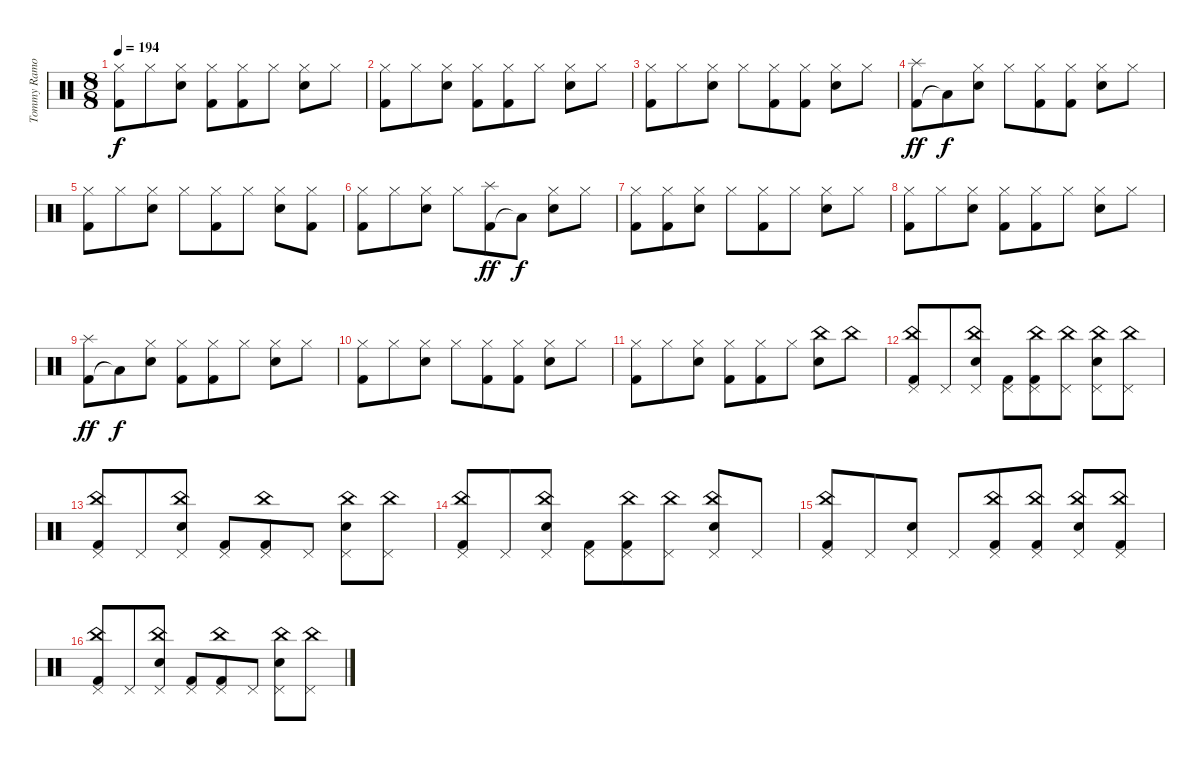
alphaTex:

\track ("Tommy Ramone - Drums" "Tommy Ramo") {instrument percussion}
\staff {score}
\articulation defaults
\ts (8 8)
\tempo 194
\clef neutral
\ks c
("Kick (hit) 2" "Hi-Hat (closed)").8{dy f} "Hi-Hat (closed)".8 ("Electric Snare (hit)" "Hi-Hat (closed)").8 ("Kick (hit) 2" "Hi-Hat (closed)").8 ("Kick (hit) 2" "Hi-Hat (closed)").8 "Hi-Hat (closed)".8 ("Electric Snare (hit)" "Hi-Hat (closed)").8 "Hi-Hat (closed)".8 |
("Kick (hit) 2" "Hi-Hat (closed)").8 "Hi-Hat (closed)".8 ("Electric Snare (hit)" "Hi-Hat (closed)").8 ("Kick (hit) 2" "Hi-Hat (closed)").8 ("Kick (hit) 2" "Hi-Hat (closed)").8 "Hi-Hat (closed)".8 ("Electric Snare (hit)" "Hi-Hat (closed)").8 "Hi-Hat (closed)".8 |
("Kick (hit) 2" "Hi-Hat (closed)").8 "Hi-Hat (closed)".8 ("Electric Snare (hit)" "Hi-Hat (closed)").8 "Hi-Hat (closed)".8 ("Kick (hit) 2" "Hi-Hat (closed)").8 ("Kick (hit) 2" "Hi-Hat (closed)").8 ("Electric Snare (hit)" "Hi-Hat (closed)").8 "Hi-Hat (closed)".8 |
("Kick (hit) 2" "Splash (hit)").8{dy ff} "Low Floor Tom (hit)"{t}.8{dy f} ("Electric Snare (hit)" "Hi-Hat (closed)").8 "Hi-Hat (closed)".8 ("Kick (hit) 2" "Hi-Hat (closed)").8 ("Kick (hit) 2" "Hi-Hat (closed)").8 ("Electric Snare (hit)" "Hi-Hat (closed)").8 "Hi-Hat (closed)".8 |
("Kick (hit) 2" "Hi-Hat (closed)").8 "Hi-Hat (closed)".8 ("Electric Snare (hit)" "Hi-Hat (closed)").8 "Hi-Hat (closed)".8 ("Kick (hit) 2" "Hi-Hat (closed)").8 "Hi-Hat (closed)".8 ("Electric Snare (hit)" "Hi-Hat (closed)").8 ("Kick (hit) 2" "Hi-Hat (closed)").8 |
("Kick (hit) 2" "Hi-Hat (closed)").8 "Hi-Hat (closed)".8 ("Electric Snare (hit)" "Hi-Hat (closed)").8 "Hi-Hat (closed)".8 ("Kick (hit) 2" "Splash (hit)").8{dy ff} "Low Floor Tom (hit)"{t}.8{dy f} ("Electric Snare (hit)" "Hi-Hat (closed)").8 "Hi-Hat (closed)".8 |
("Kick (hit) 2" "Hi-Hat (closed)").8 ("Kick (hit) 2" "Hi-Hat (closed)").8 ("Electric Snare (hit)" "Hi-Hat (closed)").8 "Hi-Hat (closed)".8 ("Kick (hit) 2" "Hi-Hat (closed)").8 "Hi-Hat (closed)".8 ("Electric Snare (hit)" "Hi-Hat (closed)").8 "Hi-Hat (closed)".8 |
("Kick (hit) 2" "Hi-Hat (closed)").8 "Hi-Hat (closed)".8 ("Electric Snare (hit)" "Hi-Hat (closed)").8 ("Kick (hit) 2" "Hi-Hat (closed)").8 ("Kick (hit) 2" "Hi-Hat (closed)").8 "Hi-Hat (closed)".8 ("Electric Snare (hit)" "Hi-Hat (closed)").8 "Hi-Hat (closed)".8 |
("Kick (hit) 2" "Splash (hit)").8{dy ff} "Low Floor Tom (hit)"{t}.8{dy f} ("Electric Snare (hit)" "Hi-Hat (closed)").8 ("Kick (hit) 2" "Hi-Hat (closed)").8 ("Kick (hit) 2" "Hi-Hat (closed)").8 "Hi-Hat (closed)".8 ("Electric Snare (hit)" "Hi-Hat (closed)").8 "Hi-Hat (closed)".8 |
("Kick (hit) 2" "Hi-Hat (closed)").8 "Hi-Hat (closed)".8 ("Electric Snare (hit)" "Hi-Hat (closed)").8 "Hi-Hat (closed)".8 ("Kick (hit) 2" "Hi-Hat (closed)").8 ("Kick (hit) 2" "Hi-Hat (closed)").8 ("Electric Snare (hit)" "Hi-Hat (closed)").8 "Hi-Hat (closed)".8 |
("Kick (hit) 2" "Hi-Hat (closed)").8 "Hi-Hat (closed)".8 ("Electric Snare (hit)" "Hi-Hat (closed)").8 ("Kick (hit) 2" "Hi-Hat (closed)").8 ("Kick (hit) 2" "Hi-Hat (closed)").8 "Hi-Hat (closed)".8 ("Electric Snare (hit)" "China (hit)").8 "China (hit)".8{bd 240} |
("Kick (hit) 2" "China (hit)" "Pedal Hi-Hat (hit)").8 "Pedal Hi-Hat (hit)".8 ("Electric Snare (hit)" "China (hit)" "Pedal Hi-Hat (hit)").8 ("Kick (hit) 2" "Pedal Hi-Hat (hit)").8 ("Kick (hit) 2" "China (hit)" "Pedal Hi-Hat (hit)").8 ("China (hit)" "Pedal Hi-Hat (hit)").8 ("Electric Snare (hit)" "China (hit)" "Pedal Hi-Hat (hit)").8 ("China (hit)" "Pedal Hi-Hat (hit)").8{bd 240} |
("Kick (hit) 2" "China (hit)" "Pedal Hi-Hat (hit)").8 "Pedal Hi-Hat (hit)".8 ("Electric Snare (hit)" "China (hit)" "Pedal Hi-Hat (hit)").8 ("Kick (hit) 2" "Pedal Hi-Hat (hit)").8 ("Kick (hit) 2" "China (hit)" "Pedal Hi-Hat (hit)").8 "Pedal Hi-Hat (hit)".8 ("Electric Snare (hit)" "China (hit)" "Pedal Hi-Hat (hit)").8 ("China (hit)" "Pedal Hi-Hat (hit)").8{bd 240} |
("Kick (hit) 2" "China (hit)" "Pedal Hi-Hat (hit)").8 "Pedal Hi-Hat (hit)".8 ("Electric Snare (hit)" "China (hit)" "Pedal Hi-Hat (hit)").8 ("Kick (hit) 2" "Pedal Hi-Hat (hit)").8 ("Kick (hit) 2" "China (hit)" "Pedal Hi-Hat (hit)").8 ("China (hit)" "Pedal Hi-Hat (hit)").8 ("Electric Snare (hit)" "China (hit)" "Pedal Hi-Hat (hit)").8 "Pedal Hi-Hat (hit)".8 |
("Kick (hit) 2" "China (hit)" "Pedal Hi-Hat (hit)").8 "Pedal Hi-Hat (hit)".8 ("Electric Snare (hit)" "Pedal Hi-Hat (hit)").8 "Pedal Hi-Hat (hit)".8 ("Kick (hit) 2" "China (hit)" "Pedal Hi-Hat (hit)").8 ("Kick (hit) 2" "China (hit)" "Pedal Hi-Hat (hit)").8 ("Electric Snare (hit)" "China (hit)" "Pedal Hi-Hat (hit)").8 ("Kick (hit) 2" "China (hit)" "Pedal Hi-Hat (hit)").8{bd 240} |
("Kick (hit) 2" "China (hit)" "Pedal Hi-Hat (hit)").8 "Pedal Hi-Hat (hit)".8 ("Electric Snare (hit)" "China (hit)" "Pedal Hi-Hat (hit)").8 ("Kick (hit) 2" "Pedal Hi-Hat (hit)").8 ("Kick (hit) 2" "China (hit)" "Pedal Hi-Hat (hit)").8 "Pedal Hi-Hat (hit)".8 ("Electric Snare (hit)" "China (hit)" "Pedal Hi-Hat (hit)").8 ("China (hit)" "Pedal Hi-Hat (hit)").8{bd 240}
